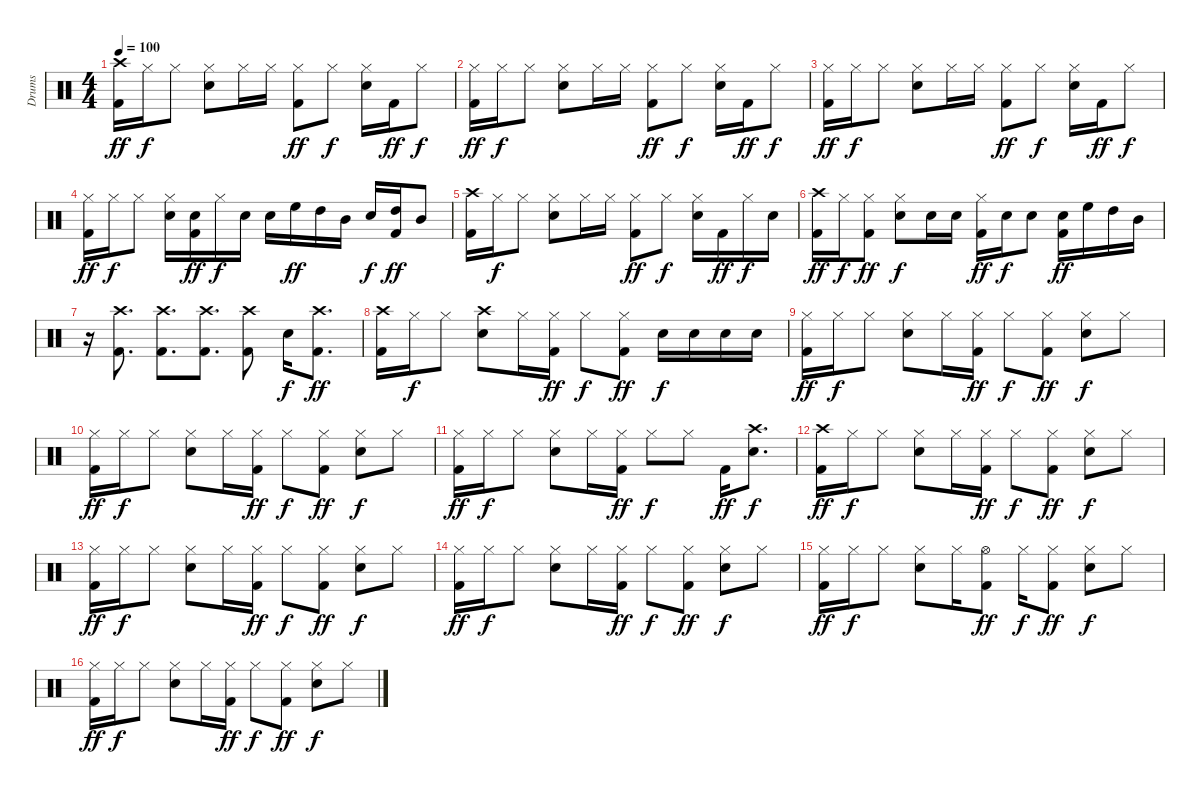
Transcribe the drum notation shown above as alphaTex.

\track ("Drums" "Drums") {instrument percussion}
\staff {score}
\articulation defaults
\ts (4 4)
\tempo 100
\clef neutral
\ks c
("Crash high (hit)" "Kick (hit) 2").16{dy ff} "Hi-Hat (closed)".16{dy f} "Hi-Hat (closed)".8 ("Hi-Hat (closed)" "Snare (hit) 2").8 "Hi-Hat (closed)".16 "Hi-Hat (closed)".16 ("Hi-Hat (closed)" "Kick (hit) 2").8{dy ff} "Hi-Hat (closed)".8{dy f} ("Hi-Hat (closed)" "Snare (hit) 2").16 "Kick (hit) 2".16{dy ff} "Hi-Hat (closed)".8{dy f} |
("Hi-Hat (closed)" "Kick (hit) 2").16{dy ff} "Hi-Hat (closed)".16{dy f} "Hi-Hat (closed)".8 ("Hi-Hat (closed)" "Snare (hit) 2").8 "Hi-Hat (closed)".16 "Hi-Hat (closed)".16 ("Hi-Hat (closed)" "Kick (hit) 2").8{dy ff} "Hi-Hat (closed)".8{dy f} ("Hi-Hat (closed)" "Snare (hit) 2").16 "Kick (hit) 2".16{dy ff} "Hi-Hat (closed)".8{dy f} |
("Hi-Hat (closed)" "Kick (hit) 2").16{dy ff} "Hi-Hat (closed)".16{dy f} "Hi-Hat (closed)".8 ("Hi-Hat (closed)" "Snare (hit) 2").8 "Hi-Hat (closed)".16 "Hi-Hat (closed)".16 ("Hi-Hat (closed)" "Kick (hit) 2").8{dy ff} "Hi-Hat (closed)".8{dy f} ("Hi-Hat (closed)" "Snare (hit) 2").16 "Kick (hit) 2".16{dy ff} "Hi-Hat (closed)".8{dy f} |
("Hi-Hat (closed)" "Kick (hit) 2").16{dy ff} "Hi-Hat (closed)".16{dy f} "Hi-Hat (closed)".8 ("Hi-Hat (closed)" "Snare (hit) 2").16 ("Snare (hit) 2" "Kick (hit) 2").16{dy ff} "Hi-Hat (closed)".16{dy f} "Snare (hit) 2".16 "Snare (hit) 2".16 "High Floor Tom (hit)".16{dy ff} "High Tom (hit)".16 "Mid Tom (hit)".16 "Snare (hit) 2".16{dy f} ("High Tom (hit)" "Kick (hit) 2").16{dy ff} "Mid Tom (hit)".8 |
("Crash high (hit)" "Kick (hit) 2").16 "Hi-Hat (closed)".16{dy f} "Hi-Hat (closed)".8 ("Hi-Hat (closed)" "Snare (hit) 2").8 "Hi-Hat (closed)".16 "Hi-Hat (closed)".16 ("Hi-Hat (closed)" "Kick (hit) 2").8{dy ff} "Hi-Hat (closed)".8{dy f} ("Hi-Hat (closed)" "Snare (hit) 2").16 "Kick (hit) 2".16{dy ff} "Hi-Hat (closed)".16{dy f} "Snare (hit) 2".16 |
("Crash high (hit)" "Kick (hit) 2").16{dy ff} "Hi-Hat (closed)".16{dy f} ("Hi-Hat (closed)" "Kick (hit) 2").8{dy ff} ("Hi-Hat (closed)" "Snare (hit) 2").8{dy f} "Snare (hit) 2".16 "Snare (hit) 2".16 ("Hi-Hat (closed)" "Kick (hit) 2").16{dy ff} "Snare (hit) 2".16{dy f} "Snare (hit) 2".8 ("Snare (hit) 2" "Kick (hit) 2").16{dy ff} "High Floor Tom (hit)".16 "High Tom (hit)".16 "Mid Tom (hit)".16 |
r.16 ("Crash high (hit)" "Kick (hit) 2").8{d} ("Crash high (hit)" "Kick (hit) 2").8{d} ("Crash high (hit)" "Kick (hit) 2").8{d} ("Crash high (hit)" "Kick (hit) 2").8 "Snare (hit) 2".16{dy f} ("Crash high (hit)" "Kick (hit) 2").8{d dy ff} |
("Crash high (hit)" "Kick (hit) 2").16 "Hi-Hat (closed)".16{dy f} "Hi-Hat (closed)".8 ("Crash high (hit)" "Snare (hit) 2").8 "Hi-Hat (closed)".16 ("Hi-Hat (closed)" "Kick (hit) 2").16{dy ff} "Hi-Hat (closed)".8{dy f} ("Hi-Hat (closed)" "Kick (hit) 2").8{dy ff} "Snare (hit) 2".16{dy f} "Snare (hit) 2".16 "Snare (hit) 2".16 "Snare (hit) 2".16 |
("Hi-Hat (closed)" "Kick (hit) 2").16{dy ff} "Hi-Hat (closed)".16{dy f} "Hi-Hat (closed)".8 ("Hi-Hat (closed)" "Snare (hit) 2").8 "Hi-Hat (closed)".16 ("Hi-Hat (closed)" "Kick (hit) 2").16{dy ff} "Hi-Hat (closed)".8{dy f} ("Hi-Hat (closed)" "Kick (hit) 2").8{dy ff} ("Hi-Hat (closed)" "Snare (hit) 2").8{dy f} "Hi-Hat (closed)".8 |
("Hi-Hat (closed)" "Kick (hit) 2").16{dy ff} "Hi-Hat (closed)".16{dy f} "Hi-Hat (closed)".8 ("Hi-Hat (closed)" "Snare (hit) 2").8 "Hi-Hat (closed)".16 ("Hi-Hat (closed)" "Kick (hit) 2").16{dy ff} "Hi-Hat (closed)".8{dy f} ("Hi-Hat (closed)" "Kick (hit) 2").8{dy ff} ("Hi-Hat (closed)" "Snare (hit) 2").8{dy f} "Hi-Hat (closed)".8 |
("Hi-Hat (closed)" "Kick (hit) 2").16{dy ff} "Hi-Hat (closed)".16{dy f} "Hi-Hat (closed)".8 ("Hi-Hat (closed)" "Snare (hit) 2").8 "Hi-Hat (closed)".16 ("Hi-Hat (closed)" "Kick (hit) 2").16{dy ff} "Hi-Hat (closed)".8{dy f} "Hi-Hat (closed)".8 "Kick (hit) 2".16{dy ff} ("Crash high (hit)" "Snare (hit) 2").8{d dy f} |
("Crash high (hit)" "Kick (hit) 2").16{dy ff} "Hi-Hat (closed)".16{dy f} "Hi-Hat (closed)".8 ("Hi-Hat (closed)" "Snare (hit) 2").8 "Hi-Hat (closed)".16 ("Hi-Hat (closed)" "Kick (hit) 2").16{dy ff} "Hi-Hat (closed)".8{dy f} ("Hi-Hat (closed)" "Kick (hit) 2").8{dy ff} ("Hi-Hat (closed)" "Snare (hit) 2").8{dy f} "Hi-Hat (closed)".8 |
("Hi-Hat (closed)" "Kick (hit) 2").16{dy ff} "Hi-Hat (closed)".16{dy f} "Hi-Hat (closed)".8 ("Hi-Hat (closed)" "Snare (hit) 2").8 "Hi-Hat (closed)".16 ("Hi-Hat (closed)" "Kick (hit) 2").16{dy ff} "Hi-Hat (closed)".8{dy f} ("Hi-Hat (closed)" "Kick (hit) 2").8{dy ff} ("Hi-Hat (closed)" "Snare (hit) 2").8{dy f} "Hi-Hat (closed)".8 |
("Hi-Hat (closed)" "Kick (hit) 2").16{dy ff} "Hi-Hat (closed)".16{dy f} "Hi-Hat (closed)".8 ("Hi-Hat (closed)" "Snare (hit) 2").8 "Hi-Hat (closed)".16 ("Hi-Hat (closed)" "Kick (hit) 2").16{dy ff} "Hi-Hat (closed)".8{dy f} ("Hi-Hat (closed)" "Kick (hit) 2").8{dy ff} ("Hi-Hat (closed)" "Snare (hit) 2").8{dy f} "Hi-Hat (closed)".8 |
("Hi-Hat (closed)" "Kick (hit) 2").16{dy ff} "Hi-Hat (closed)".16{dy f} "Hi-Hat (closed)".8 ("Hi-Hat (closed)" "Snare (hit) 2").8 "Hi-Hat (closed)".16 ("Hi-Hat (open)" "Kick (hit) 2").8{dy ff} "Hi-Hat (closed)".16{dy f} ("Hi-Hat (closed)" "Kick (hit) 2").8{dy ff} ("Hi-Hat (closed)" "Snare (hit) 2").8{dy f} "Hi-Hat (closed)".8 |
("Hi-Hat (closed)" "Kick (hit) 2").16{dy ff} "Hi-Hat (closed)".16{dy f} "Hi-Hat (closed)".8 ("Hi-Hat (closed)" "Snare (hit) 2").8 "Hi-Hat (closed)".16 ("Hi-Hat (closed)" "Kick (hit) 2").16{dy ff} "Hi-Hat (closed)".8{dy f} ("Hi-Hat (closed)" "Kick (hit) 2").8{dy ff} ("Hi-Hat (closed)" "Snare (hit) 2").8{dy f} "Hi-Hat (closed)".8
